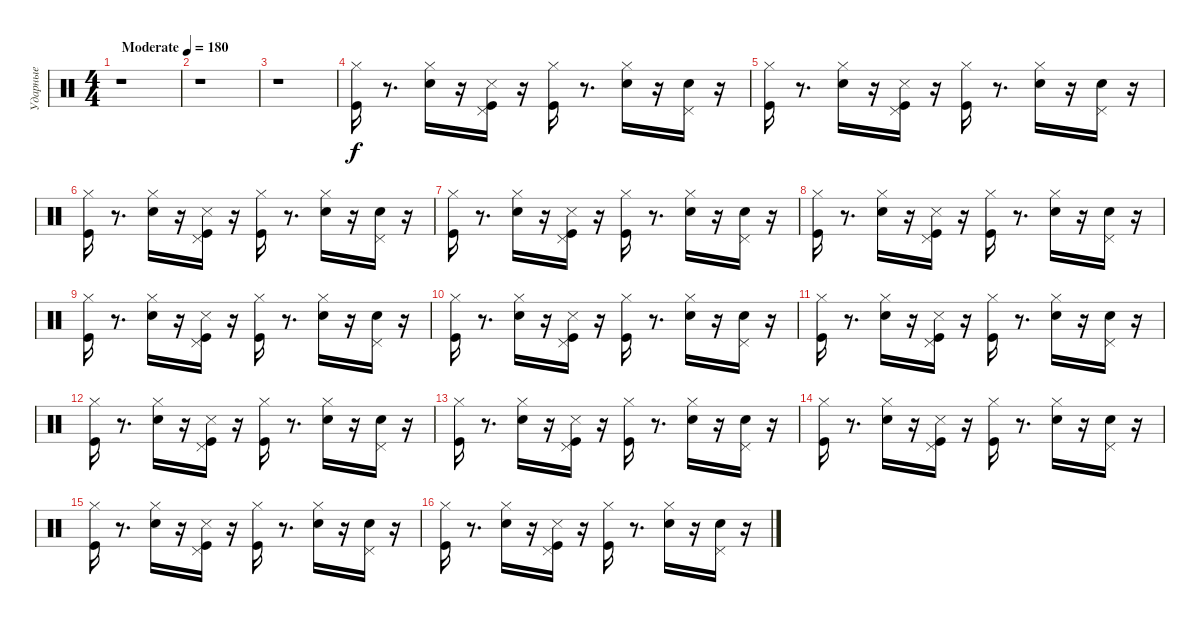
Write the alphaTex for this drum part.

\track ("Ударные" "Ударные") {instrument percussion}
\staff {score}
\articulation defaults
\ts (4 4)
\tempo (180 "Moderate")
\clef neutral
\ks c
r.1{dy f} |
r.1 |
r.1 |
("Hi-Hat (closed)" "Kick (hit)").16 r.8{d} ("Hi-Hat (closed)" "Snare (hit) 2").16 r.16 ("Snare (side stick) 3" "Kick (hit)" "Pedal Hi-Hat (hit)").16 r.16 ("Hi-Hat (closed)" "Kick (hit)").16 r.8{d} ("Hi-Hat (closed)" "Snare (hit) 2").16 r.16 ("Snare (hit) 2" "Pedal Hi-Hat (hit)").16 r.16 |
("Hi-Hat (closed)" "Kick (hit)").16 r.8{d} ("Hi-Hat (closed)" "Snare (hit) 2").16 r.16 ("Snare (side stick) 3" "Kick (hit)" "Pedal Hi-Hat (hit)").16 r.16 ("Hi-Hat (closed)" "Kick (hit)").16 r.8{d} ("Hi-Hat (closed)" "Snare (hit) 2").16 r.16 ("Snare (hit) 2" "Pedal Hi-Hat (hit)").16 r.16 |
("Hi-Hat (closed)" "Kick (hit)").16 r.8{d} ("Hi-Hat (closed)" "Snare (hit) 2").16 r.16 ("Snare (side stick) 3" "Kick (hit)" "Pedal Hi-Hat (hit)").16 r.16 ("Hi-Hat (closed)" "Kick (hit)").16 r.8{d} ("Hi-Hat (closed)" "Snare (hit) 2").16 r.16 ("Snare (hit) 2" "Pedal Hi-Hat (hit)").16 r.16 |
("Hi-Hat (closed)" "Kick (hit)").16 r.8{d} ("Hi-Hat (closed)" "Snare (hit) 2").16 r.16 ("Snare (side stick) 3" "Kick (hit)" "Pedal Hi-Hat (hit)").16 r.16 ("Hi-Hat (closed)" "Kick (hit)").16 r.8{d} ("Hi-Hat (closed)" "Snare (hit) 2").16 r.16 ("Snare (hit) 2" "Pedal Hi-Hat (hit)").16 r.16 |
("Hi-Hat (closed)" "Kick (hit)").16 r.8{d} ("Hi-Hat (closed)" "Snare (hit) 2").16 r.16 ("Snare (side stick) 3" "Kick (hit)" "Pedal Hi-Hat (hit)").16 r.16 ("Hi-Hat (closed)" "Kick (hit)").16 r.8{d} ("Hi-Hat (closed)" "Snare (hit) 2").16 r.16 ("Snare (hit) 2" "Pedal Hi-Hat (hit)").16 r.16 |
("Hi-Hat (closed)" "Kick (hit)").16 r.8{d} ("Hi-Hat (closed)" "Snare (hit) 2").16 r.16 ("Snare (side stick) 3" "Kick (hit)" "Pedal Hi-Hat (hit)").16 r.16 ("Hi-Hat (closed)" "Kick (hit)").16 r.8{d} ("Hi-Hat (closed)" "Snare (hit) 2").16 r.16 ("Snare (hit) 2" "Pedal Hi-Hat (hit)").16 r.16 |
("Hi-Hat (closed)" "Kick (hit)").16 r.8{d} ("Hi-Hat (closed)" "Snare (hit) 2").16 r.16 ("Snare (side stick) 3" "Kick (hit)" "Pedal Hi-Hat (hit)").16 r.16 ("Hi-Hat (closed)" "Kick (hit)").16 r.8{d} ("Hi-Hat (closed)" "Snare (hit) 2").16 r.16 ("Snare (hit) 2" "Pedal Hi-Hat (hit)").16 r.16 |
("Hi-Hat (closed)" "Kick (hit)").16 r.8{d} ("Hi-Hat (closed)" "Snare (hit) 2").16 r.16 ("Snare (side stick) 3" "Kick (hit)" "Pedal Hi-Hat (hit)").16 r.16 ("Hi-Hat (closed)" "Kick (hit)").16 r.8{d} ("Hi-Hat (closed)" "Snare (hit) 2").16 r.16 ("Snare (hit) 2" "Pedal Hi-Hat (hit)").16 r.16 |
("Hi-Hat (closed)" "Kick (hit)").16 r.8{d} ("Hi-Hat (closed)" "Snare (hit) 2").16 r.16 ("Snare (side stick) 3" "Kick (hit)" "Pedal Hi-Hat (hit)").16 r.16 ("Hi-Hat (closed)" "Kick (hit)").16 r.8{d} ("Hi-Hat (closed)" "Snare (hit) 2").16 r.16 ("Snare (hit) 2" "Pedal Hi-Hat (hit)").16 r.16 |
("Hi-Hat (closed)" "Kick (hit)").16 r.8{d} ("Hi-Hat (closed)" "Snare (hit) 2").16 r.16 ("Snare (side stick) 3" "Kick (hit)" "Pedal Hi-Hat (hit)").16 r.16 ("Hi-Hat (closed)" "Kick (hit)").16 r.8{d} ("Hi-Hat (closed)" "Snare (hit) 2").16 r.16 ("Snare (hit) 2" "Pedal Hi-Hat (hit)").16 r.16 |
("Hi-Hat (closed)" "Kick (hit)").16 r.8{d} ("Hi-Hat (closed)" "Snare (hit) 2").16 r.16 ("Snare (side stick) 3" "Kick (hit)" "Pedal Hi-Hat (hit)").16 r.16 ("Hi-Hat (closed)" "Kick (hit)").16 r.8{d} ("Hi-Hat (closed)" "Snare (hit) 2").16 r.16 ("Snare (hit) 2" "Pedal Hi-Hat (hit)").16 r.16 |
("Hi-Hat (closed)" "Kick (hit)").16 r.8{d} ("Hi-Hat (closed)" "Snare (hit) 2").16 r.16 ("Snare (side stick) 3" "Kick (hit)" "Pedal Hi-Hat (hit)").16 r.16 ("Hi-Hat (closed)" "Kick (hit)").16 r.8{d} ("Hi-Hat (closed)" "Snare (hit) 2").16 r.16 ("Snare (hit) 2" "Pedal Hi-Hat (hit)").16 r.16 |
("Hi-Hat (closed)" "Kick (hit)").16 r.8{d} ("Hi-Hat (closed)" "Snare (hit) 2").16 r.16 ("Snare (side stick) 3" "Kick (hit)" "Pedal Hi-Hat (hit)").16 r.16 ("Hi-Hat (closed)" "Kick (hit)").16 r.8{d} ("Hi-Hat (closed)" "Snare (hit) 2").16 r.16 ("Snare (hit) 2" "Pedal Hi-Hat (hit)").16 r.16
